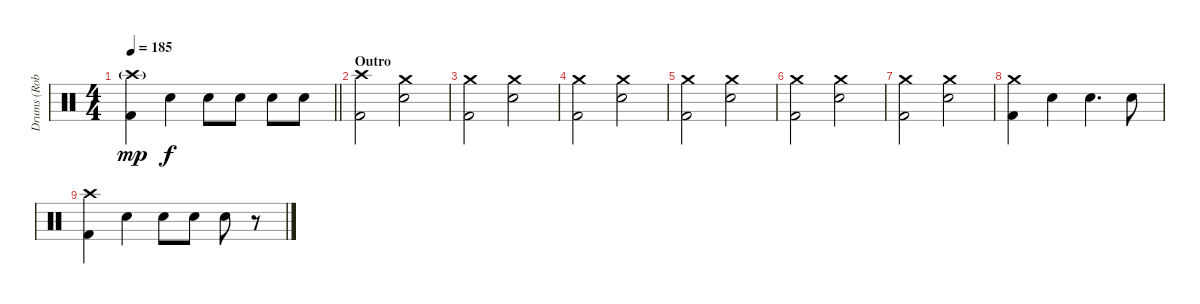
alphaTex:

\track ("Drums (Robert Ortiz)" "Drums (Rob") {instrument percussion}
\staff {score}
\articulation defaults
\ts (4 4)
\tempo 185
\clef neutral
\barLineRight lightlight
\ks c
("Crash high (hit)"{g} "Kick (hit) 2").4{dy mp} "Electric Snare (hit)".4{dy f} "Electric Snare (hit)".8 "Electric Snare (hit)".8 "Electric Snare (hit)".8 "Electric Snare (hit)".8 |
\section ("" "Outro")
("Crash high (hit)" "Kick (hit) 2").2 ("Crash medium (hit)" "Electric Snare (hit)").2 |
("Crash medium (hit)" "Kick (hit) 2").2 ("Crash medium (hit)" "Electric Snare (hit)").2 |
("Crash medium (hit)" "Kick (hit) 2").2 ("Crash medium (hit)" "Electric Snare (hit)").2 |
("Crash medium (hit)" "Kick (hit) 2").2 ("Crash medium (hit)" "Electric Snare (hit)").2 |
("Crash medium (hit)" "Kick (hit) 2").2 ("Crash medium (hit)" "Electric Snare (hit)").2 |
("Crash medium (hit)" "Kick (hit) 2").2 ("Crash medium (hit)" "Electric Snare (hit)").2 |
("Crash medium (hit)" "Kick (hit) 2").4 "Electric Snare (hit)".4 "Electric Snare (hit)".4{d} "Electric Snare (hit)".8 |
("Crash high (hit)" "Kick (hit) 2").4 "Electric Snare (hit)".4 "Electric Snare (hit)".8 "Electric Snare (hit)".8 "Electric Snare (hit)".8 r.8
